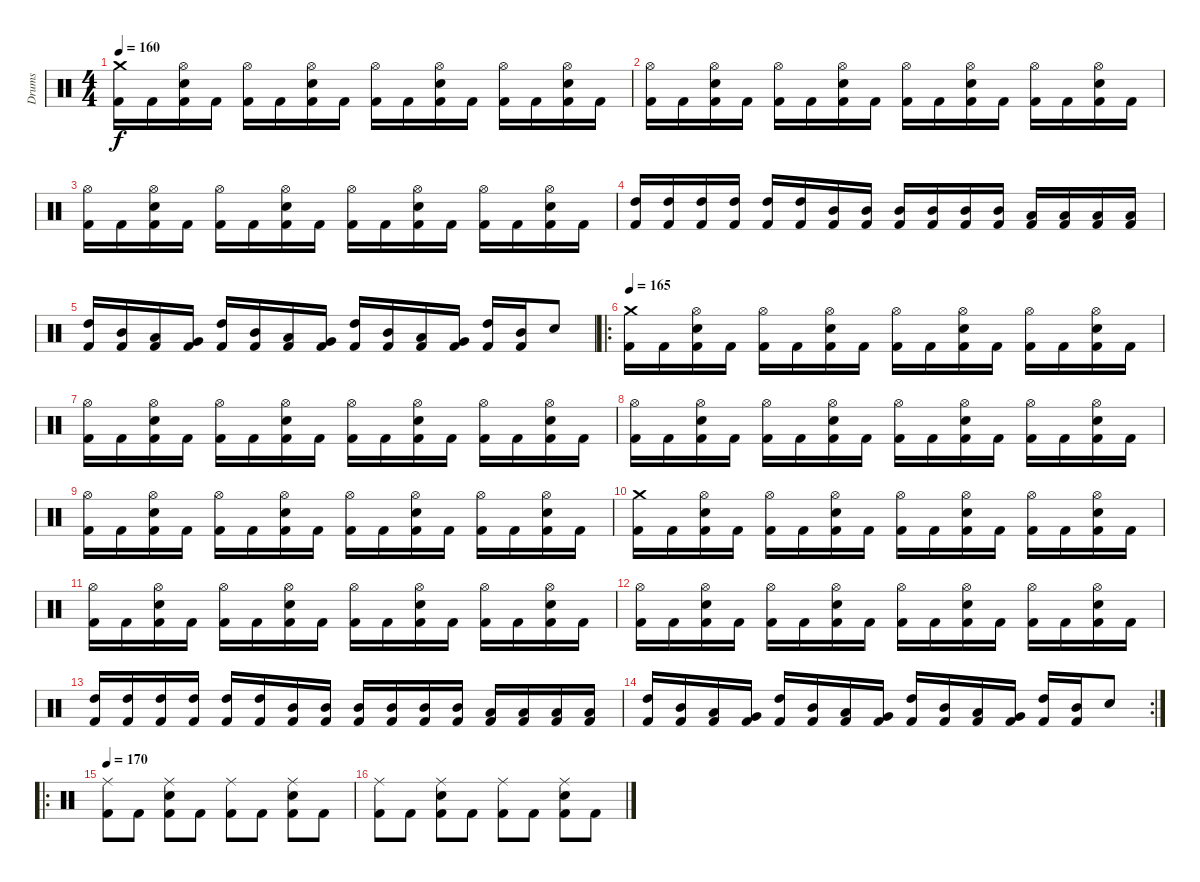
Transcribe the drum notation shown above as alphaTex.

\track ("Drums" "Drums") {instrument percussion}
\staff {score}
\articulation defaults
\ts (4 4)
\tempo 160
\clef neutral
\ks c
("Kick (hit) 2" "Crash medium (hit)").16{dy f} "Kick (hit) 2".16 ("Kick (hit) 2" "Electric Snare (hit)" "Hi-Hat (open)").16 "Kick (hit) 2".16 ("Kick (hit) 2" "Hi-Hat (open)").16 "Kick (hit) 2".16 ("Kick (hit) 2" "Electric Snare (hit)" "Hi-Hat (open)").16 "Kick (hit) 2".16 ("Kick (hit) 2" "Hi-Hat (open)").16 "Kick (hit) 2".16 ("Kick (hit) 2" "Electric Snare (hit)" "Hi-Hat (open)").16 "Kick (hit) 2".16 ("Kick (hit) 2" "Hi-Hat (open)").16 "Kick (hit) 2".16 ("Kick (hit) 2" "Electric Snare (hit)" "Hi-Hat (open)").16 "Kick (hit) 2".16 |
("Kick (hit) 2" "Hi-Hat (open)").16 "Kick (hit) 2".16 ("Kick (hit) 2" "Electric Snare (hit)" "Hi-Hat (open)").16 "Kick (hit) 2".16 ("Kick (hit) 2" "Hi-Hat (open)").16 "Kick (hit) 2".16 ("Kick (hit) 2" "Electric Snare (hit)" "Hi-Hat (open)").16 "Kick (hit) 2".16 ("Kick (hit) 2" "Hi-Hat (open)").16 "Kick (hit) 2".16 ("Kick (hit) 2" "Electric Snare (hit)" "Hi-Hat (open)").16 "Kick (hit) 2".16 ("Kick (hit) 2" "Hi-Hat (open)").16 "Kick (hit) 2".16 ("Kick (hit) 2" "Electric Snare (hit)" "Hi-Hat (open)").16 "Kick (hit) 2".16 |
("Kick (hit) 2" "Hi-Hat (open)").16 "Kick (hit) 2".16 ("Kick (hit) 2" "Electric Snare (hit)" "Hi-Hat (open)").16 "Kick (hit) 2".16 ("Kick (hit) 2" "Hi-Hat (open)").16 "Kick (hit) 2".16 ("Kick (hit) 2" "Electric Snare (hit)" "Hi-Hat (open)").16 "Kick (hit) 2".16 ("Kick (hit) 2" "Hi-Hat (open)").16 "Kick (hit) 2".16 ("Kick (hit) 2" "Electric Snare (hit)" "Hi-Hat (open)").16 "Kick (hit) 2".16 ("Kick (hit) 2" "Hi-Hat (open)").16 "Kick (hit) 2".16 ("Kick (hit) 2" "Electric Snare (hit)" "Hi-Hat (open)").16 "Kick (hit) 2".16 |
("Kick (hit) 2" "High Tom (hit)").16 ("Kick (hit) 2" "High Tom (hit)").16 ("Kick (hit) 2" "High Tom (hit)").16 ("Kick (hit) 2" "High Tom (hit)").16 ("Kick (hit) 2" "High Tom (hit)").16 ("Kick (hit) 2" "High Tom (hit)").16 ("Kick (hit) 2" "Mid Tom (hit)").16 ("Kick (hit) 2" "Mid Tom (hit)").16 ("Kick (hit) 2" "Mid Tom (hit)").16 ("Kick (hit) 2" "Mid Tom (hit)").16 ("Kick (hit) 2" "Mid Tom (hit)").16 ("Kick (hit) 2" "Mid Tom (hit)").16 ("Kick (hit) 2" "Low Tom (hit)").16 ("Kick (hit) 2" "Low Tom (hit)").16 ("Kick (hit) 2" "Low Tom (hit)").16 ("Kick (hit) 2" "Low Tom (hit)").16 |
("Kick (hit) 2" "High Tom (hit)").16 ("Kick (hit) 2" "Mid Tom (hit)").16 ("Kick (hit) 2" "Low Tom (hit)").16 ("Kick (hit) 2" "Very Low Tom (hit)").16 ("Kick (hit) 2" "High Tom (hit)").16 ("Kick (hit) 2" "Mid Tom (hit)").16 ("Kick (hit) 2" "Low Tom (hit)").16 ("Kick (hit) 2" "Very Low Tom (hit)").16 ("Kick (hit) 2" "High Tom (hit)").16 ("Kick (hit) 2" "Mid Tom (hit)").16 ("Kick (hit) 2" "Low Tom (hit)").16 ("Kick (hit) 2" "Very Low Tom (hit)").16 ("Kick (hit) 2" "High Tom (hit)").16 ("Kick (hit) 2" "Mid Tom (hit)").16 "Electric Snare (hit)".8 |
\ro
\tempo 165
("Kick (hit) 2" "Crash medium (hit)").16 "Kick (hit) 2".16 ("Kick (hit) 2" "Electric Snare (hit)" "Hi-Hat (open)").16 "Kick (hit) 2".16 ("Kick (hit) 2" "Hi-Hat (open)").16 "Kick (hit) 2".16 ("Kick (hit) 2" "Electric Snare (hit)" "Hi-Hat (open)").16 "Kick (hit) 2".16 ("Kick (hit) 2" "Hi-Hat (open)").16 "Kick (hit) 2".16 ("Kick (hit) 2" "Electric Snare (hit)" "Hi-Hat (open)").16 "Kick (hit) 2".16 ("Kick (hit) 2" "Hi-Hat (open)").16 "Kick (hit) 2".16 ("Kick (hit) 2" "Electric Snare (hit)" "Hi-Hat (open)").16 "Kick (hit) 2".16 |
("Kick (hit) 2" "Hi-Hat (open)").16 "Kick (hit) 2".16 ("Kick (hit) 2" "Electric Snare (hit)" "Hi-Hat (open)").16 "Kick (hit) 2".16 ("Kick (hit) 2" "Hi-Hat (open)").16 "Kick (hit) 2".16 ("Kick (hit) 2" "Electric Snare (hit)" "Hi-Hat (open)").16 "Kick (hit) 2".16 ("Kick (hit) 2" "Hi-Hat (open)").16 "Kick (hit) 2".16 ("Kick (hit) 2" "Electric Snare (hit)" "Hi-Hat (open)").16 "Kick (hit) 2".16 ("Kick (hit) 2" "Hi-Hat (open)").16 "Kick (hit) 2".16 ("Kick (hit) 2" "Electric Snare (hit)" "Hi-Hat (open)").16 "Kick (hit) 2".16 |
("Kick (hit) 2" "Hi-Hat (open)").16 "Kick (hit) 2".16 ("Kick (hit) 2" "Electric Snare (hit)" "Hi-Hat (open)").16 "Kick (hit) 2".16 ("Kick (hit) 2" "Hi-Hat (open)").16 "Kick (hit) 2".16 ("Kick (hit) 2" "Electric Snare (hit)" "Hi-Hat (open)").16 "Kick (hit) 2".16 ("Kick (hit) 2" "Hi-Hat (open)").16 "Kick (hit) 2".16 ("Kick (hit) 2" "Electric Snare (hit)" "Hi-Hat (open)").16 "Kick (hit) 2".16 ("Kick (hit) 2" "Hi-Hat (open)").16 "Kick (hit) 2".16 ("Kick (hit) 2" "Electric Snare (hit)" "Hi-Hat (open)").16 "Kick (hit) 2".16 |
("Kick (hit) 2" "Hi-Hat (open)").16 "Kick (hit) 2".16 ("Kick (hit) 2" "Electric Snare (hit)" "Hi-Hat (open)").16 "Kick (hit) 2".16 ("Kick (hit) 2" "Hi-Hat (open)").16 "Kick (hit) 2".16 ("Kick (hit) 2" "Electric Snare (hit)" "Hi-Hat (open)").16 "Kick (hit) 2".16 ("Kick (hit) 2" "Hi-Hat (open)").16 "Kick (hit) 2".16 ("Kick (hit) 2" "Electric Snare (hit)" "Hi-Hat (open)").16 "Kick (hit) 2".16 ("Kick (hit) 2" "Hi-Hat (open)").16 "Kick (hit) 2".16 ("Kick (hit) 2" "Electric Snare (hit)" "Hi-Hat (open)").16 "Kick (hit) 2".16 |
("Kick (hit) 2" "Crash medium (hit)").16 "Kick (hit) 2".16 ("Kick (hit) 2" "Electric Snare (hit)" "Hi-Hat (open)").16 "Kick (hit) 2".16 ("Kick (hit) 2" "Hi-Hat (open)").16 "Kick (hit) 2".16 ("Kick (hit) 2" "Electric Snare (hit)" "Hi-Hat (open)").16 "Kick (hit) 2".16 ("Kick (hit) 2" "Hi-Hat (open)").16 "Kick (hit) 2".16 ("Kick (hit) 2" "Electric Snare (hit)" "Hi-Hat (open)").16 "Kick (hit) 2".16 ("Kick (hit) 2" "Hi-Hat (open)").16 "Kick (hit) 2".16 ("Kick (hit) 2" "Electric Snare (hit)" "Hi-Hat (open)").16 "Kick (hit) 2".16 |
("Kick (hit) 2" "Hi-Hat (open)").16 "Kick (hit) 2".16 ("Kick (hit) 2" "Electric Snare (hit)" "Hi-Hat (open)").16 "Kick (hit) 2".16 ("Kick (hit) 2" "Hi-Hat (open)").16 "Kick (hit) 2".16 ("Kick (hit) 2" "Electric Snare (hit)" "Hi-Hat (open)").16 "Kick (hit) 2".16 ("Kick (hit) 2" "Hi-Hat (open)").16 "Kick (hit) 2".16 ("Kick (hit) 2" "Electric Snare (hit)" "Hi-Hat (open)").16 "Kick (hit) 2".16 ("Kick (hit) 2" "Hi-Hat (open)").16 "Kick (hit) 2".16 ("Kick (hit) 2" "Electric Snare (hit)" "Hi-Hat (open)").16 "Kick (hit) 2".16 |
("Kick (hit) 2" "Hi-Hat (open)").16 "Kick (hit) 2".16 ("Kick (hit) 2" "Electric Snare (hit)" "Hi-Hat (open)").16 "Kick (hit) 2".16 ("Kick (hit) 2" "Hi-Hat (open)").16 "Kick (hit) 2".16 ("Kick (hit) 2" "Electric Snare (hit)" "Hi-Hat (open)").16 "Kick (hit) 2".16 ("Kick (hit) 2" "Hi-Hat (open)").16 "Kick (hit) 2".16 ("Kick (hit) 2" "Electric Snare (hit)" "Hi-Hat (open)").16 "Kick (hit) 2".16 ("Kick (hit) 2" "Hi-Hat (open)").16 "Kick (hit) 2".16 ("Kick (hit) 2" "Electric Snare (hit)" "Hi-Hat (open)").16 "Kick (hit) 2".16 |
("Kick (hit) 2" "High Tom (hit)").16 ("Kick (hit) 2" "High Tom (hit)").16 ("Kick (hit) 2" "High Tom (hit)").16 ("Kick (hit) 2" "High Tom (hit)").16 ("Kick (hit) 2" "High Tom (hit)").16 ("Kick (hit) 2" "High Tom (hit)").16 ("Kick (hit) 2" "Mid Tom (hit)").16 ("Kick (hit) 2" "Mid Tom (hit)").16 ("Kick (hit) 2" "Mid Tom (hit)").16 ("Kick (hit) 2" "Mid Tom (hit)").16 ("Kick (hit) 2" "Mid Tom (hit)").16 ("Kick (hit) 2" "Mid Tom (hit)").16 ("Kick (hit) 2" "Low Tom (hit)").16 ("Kick (hit) 2" "Low Tom (hit)").16 ("Kick (hit) 2" "Low Tom (hit)").16 ("Kick (hit) 2" "Low Tom (hit)").16 |
\rc 2
("Kick (hit) 2" "High Tom (hit)").16 ("Kick (hit) 2" "Mid Tom (hit)").16 ("Kick (hit) 2" "Low Tom (hit)").16 ("Kick (hit) 2" "Very Low Tom (hit)").16 ("Kick (hit) 2" "High Tom (hit)").16 ("Kick (hit) 2" "Mid Tom (hit)").16 ("Kick (hit) 2" "Low Tom (hit)").16 ("Kick (hit) 2" "Very Low Tom (hit)").16 ("Kick (hit) 2" "High Tom (hit)").16 ("Kick (hit) 2" "Mid Tom (hit)").16 ("Kick (hit) 2" "Low Tom (hit)").16 ("Kick (hit) 2" "Very Low Tom (hit)").16 ("Kick (hit) 2" "High Tom (hit)").16 ("Kick (hit) 2" "Mid Tom (hit)").16 "Electric Snare (hit)".8 |
\ro
\tempo 170
("Kick (hit) 2" "Ride (middle)").8 "Kick (hit) 2".8 ("Kick (hit) 2" "Electric Snare (hit)" "Ride (middle)").8 "Kick (hit) 2".8 ("Kick (hit) 2" "Ride (middle)").8 "Kick (hit) 2".8 ("Kick (hit) 2" "Electric Snare (hit)" "Ride (middle)").8 "Kick (hit) 2".8 |
("Kick (hit) 2" "Ride (middle)").8 "Kick (hit) 2".8 ("Kick (hit) 2" "Electric Snare (hit)" "Ride (middle)").8 "Kick (hit) 2".8 ("Kick (hit) 2" "Ride (middle)").8 "Kick (hit) 2".8 ("Kick (hit) 2" "Electric Snare (hit)" "Ride (middle)").8 "Kick (hit) 2".8
